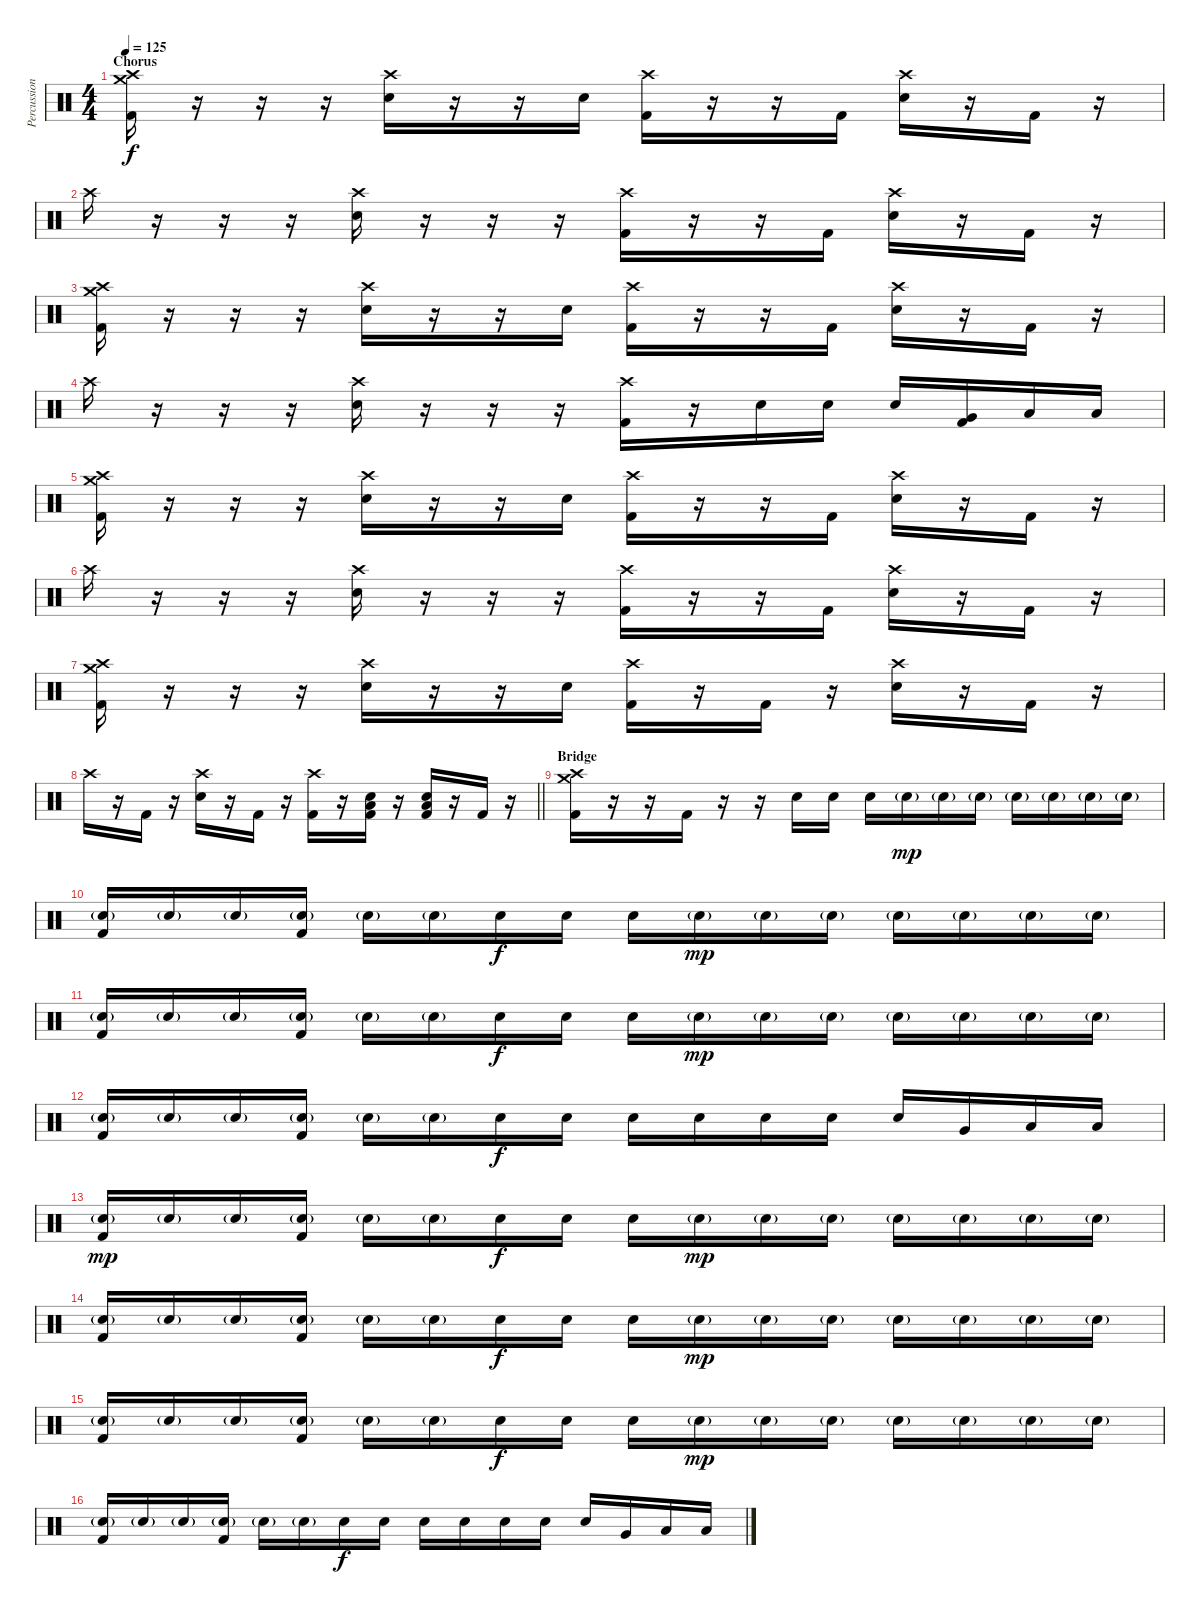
\track ("Percussion" "Percussion") {instrument percussion}
\staff {score}
\articulation defaults
\ts (4 4)
\section ("" "Chorus")
\tempo 125
\clef neutral
\ks c
("Crash medium (hit)" "Crash high (hit)" "Kick (hit) 2").16{dy f} r.16 r.16 r.16 ("Crash high (hit)" "Electric Snare (hit)").16 r.16 r.16 "Electric Snare (hit)".16 ("Crash high (hit)" "Kick (hit) 2").16 r.16 r.16 "Kick (hit) 2".16 ("Crash high (hit)" "Electric Snare (hit)").16 r.16 "Kick (hit) 2".16 r.16 |
"Crash high (hit)".16 r.16 r.16 r.16 ("Crash high (hit)" "Electric Snare (hit)").16 r.16 r.16 r.16 ("Crash high (hit)" "Kick (hit) 2").16 r.16 r.16 "Kick (hit) 2".16 ("Crash high (hit)" "Electric Snare (hit)").16 r.16 "Kick (hit) 2".16 r.16 |
("Crash medium (hit)" "Crash high (hit)" "Kick (hit) 2").16 r.16 r.16 r.16 ("Crash high (hit)" "Electric Snare (hit)").16 r.16 r.16 "Electric Snare (hit)".16 ("Crash high (hit)" "Kick (hit) 2").16 r.16 r.16 "Kick (hit) 2".16 ("Crash high (hit)" "Electric Snare (hit)").16 r.16 "Kick (hit) 2".16 r.16 |
"Crash high (hit)".16 r.16 r.16 r.16 ("Crash high (hit)" "Electric Snare (hit)").16 r.16 r.16 r.16 ("Crash high (hit)" "Kick (hit) 2").16 r.16 "Electric Snare (hit)".16 "Electric Snare (hit)".16 "Electric Snare (hit)".16 ("Very Low Tom (hit)" "Kick (hit) 2").16 "Low Floor Tom (hit)".16 "Low Floor Tom (hit)".16 |
("Crash medium (hit)" "Crash high (hit)" "Kick (hit) 2").16 r.16 r.16 r.16 ("Crash high (hit)" "Electric Snare (hit)").16 r.16 r.16 "Electric Snare (hit)".16 ("Crash high (hit)" "Kick (hit) 2").16 r.16 r.16 "Kick (hit) 2".16 ("Crash high (hit)" "Electric Snare (hit)").16 r.16 "Kick (hit) 2".16 r.16 |
"Crash high (hit)".16 r.16 r.16 r.16 ("Crash high (hit)" "Electric Snare (hit)").16 r.16 r.16 r.16 ("Crash high (hit)" "Kick (hit) 2").16 r.16 r.16 "Kick (hit) 2".16 ("Crash high (hit)" "Electric Snare (hit)").16 r.16 "Kick (hit) 2".16 r.16 |
("Crash medium (hit)" "Crash high (hit)" "Kick (hit) 2").16 r.16 r.16 r.16 ("Crash high (hit)" "Electric Snare (hit)").16 r.16 r.16 "Electric Snare (hit)".16 ("Crash high (hit)" "Kick (hit) 2").16 r.16 "Kick (hit) 2".16 r.16 ("Crash high (hit)" "Electric Snare (hit)").16 r.16 "Kick (hit) 2".16 r.16 |
\barLineRight lightlight "Crash high (hit)".16
r.16 "Kick (hit) 2".16 r.16 ("Crash high (hit)" "Electric Snare (hit)").16 r.16 "Kick (hit) 2".16 r.16 ("Crash high (hit)" "Kick (hit) 2").16 r.16 ("Electric Snare (hit)" "Low Floor Tom (hit)" "Kick (hit) 2").16 r.16 ("Electric Snare (hit)" "Low Floor Tom (hit)" "Kick (hit) 2").16 r.16 "Kick (hit) 2".16 r.16 |
\section ("" "Bridge")
("Crash medium (hit)" "Crash high (hit)" "Kick (hit) 2").16 r.16 r.16 "Kick (hit) 2".16 r.16 r.16 "Electric Snare (hit)".16 "Electric Snare (hit)".16 "Electric Snare (hit)".16 "Electric Snare (hit)"{g}.16{dy mp} "Electric Snare (hit)"{g}.16 "Electric Snare (hit)"{g}.16 "Electric Snare (hit)"{g}.16 "Electric Snare (hit)"{g}.16 "Electric Snare (hit)"{g}.16 "Electric Snare (hit)"{g}.16 |
("Electric Snare (hit)"{g} "Kick (hit) 2").16 "Electric Snare (hit)"{g}.16 "Electric Snare (hit)"{g}.16 ("Electric Snare (hit)"{g} "Kick (hit) 2").16 "Electric Snare (hit)"{g}.16 "Electric Snare (hit)"{g}.16 "Electric Snare (hit)".16{dy f} "Electric Snare (hit)".16 "Electric Snare (hit)".16 "Electric Snare (hit)"{g}.16{dy mp} "Electric Snare (hit)"{g}.16 "Electric Snare (hit)"{g}.16 "Electric Snare (hit)"{g}.16 "Electric Snare (hit)"{g}.16 "Electric Snare (hit)"{g}.16 "Electric Snare (hit)"{g}.16 |
("Electric Snare (hit)"{g} "Kick (hit) 2").16 "Electric Snare (hit)"{g}.16 "Electric Snare (hit)"{g}.16 ("Electric Snare (hit)"{g} "Kick (hit) 2").16 "Electric Snare (hit)"{g}.16 "Electric Snare (hit)"{g}.16 "Electric Snare (hit)".16{dy f} "Electric Snare (hit)".16 "Electric Snare (hit)".16 "Electric Snare (hit)"{g}.16{dy mp} "Electric Snare (hit)"{g}.16 "Electric Snare (hit)"{g}.16 "Electric Snare (hit)"{g}.16 "Electric Snare (hit)"{g}.16 "Electric Snare (hit)"{g}.16 "Electric Snare (hit)"{g}.16 |
("Electric Snare (hit)"{g} "Kick (hit) 2").16 "Electric Snare (hit)"{g}.16 "Electric Snare (hit)"{g}.16 ("Electric Snare (hit)"{g} "Kick (hit) 2").16 "Electric Snare (hit)"{g}.16 "Electric Snare (hit)"{g}.16 "Electric Snare (hit)".16{dy f} "Electric Snare (hit)".16 "Electric Snare (hit)".16 "Electric Snare (hit)".16 "Electric Snare (hit)".16 "Electric Snare (hit)".16 "Electric Snare (hit)".16 "Very Low Tom (hit)".16 "Low Floor Tom (hit)".16 "Low Floor Tom (hit)".16 |
("Electric Snare (hit)"{g} "Kick (hit) 2").16{dy mp} "Electric Snare (hit)"{g}.16 "Electric Snare (hit)"{g}.16 ("Electric Snare (hit)"{g} "Kick (hit) 2").16 "Electric Snare (hit)"{g}.16 "Electric Snare (hit)"{g}.16 "Electric Snare (hit)".16{dy f} "Electric Snare (hit)".16 "Electric Snare (hit)".16 "Electric Snare (hit)"{g}.16{dy mp} "Electric Snare (hit)"{g}.16 "Electric Snare (hit)"{g}.16 "Electric Snare (hit)"{g}.16 "Electric Snare (hit)"{g}.16 "Electric Snare (hit)"{g}.16 "Electric Snare (hit)"{g}.16 |
("Electric Snare (hit)"{g} "Kick (hit) 2").16 "Electric Snare (hit)"{g}.16 "Electric Snare (hit)"{g}.16 ("Electric Snare (hit)"{g} "Kick (hit) 2").16 "Electric Snare (hit)"{g}.16 "Electric Snare (hit)"{g}.16 "Electric Snare (hit)".16{dy f} "Electric Snare (hit)".16 "Electric Snare (hit)".16 "Electric Snare (hit)"{g}.16{dy mp} "Electric Snare (hit)"{g}.16 "Electric Snare (hit)"{g}.16 "Electric Snare (hit)"{g}.16 "Electric Snare (hit)"{g}.16 "Electric Snare (hit)"{g}.16 "Electric Snare (hit)"{g}.16 |
("Electric Snare (hit)"{g} "Kick (hit) 2").16 "Electric Snare (hit)"{g}.16 "Electric Snare (hit)"{g}.16 ("Electric Snare (hit)"{g} "Kick (hit) 2").16 "Electric Snare (hit)"{g}.16 "Electric Snare (hit)"{g}.16 "Electric Snare (hit)".16{dy f} "Electric Snare (hit)".16 "Electric Snare (hit)".16 "Electric Snare (hit)"{g}.16{dy mp} "Electric Snare (hit)"{g}.16 "Electric Snare (hit)"{g}.16 "Electric Snare (hit)"{g}.16 "Electric Snare (hit)"{g}.16 "Electric Snare (hit)"{g}.16 "Electric Snare (hit)"{g}.16 |
("Electric Snare (hit)"{g} "Kick (hit) 2").16 "Electric Snare (hit)"{g}.16 "Electric Snare (hit)"{g}.16 ("Electric Snare (hit)"{g} "Kick (hit) 2").16 "Electric Snare (hit)"{g}.16 "Electric Snare (hit)"{g}.16 "Electric Snare (hit)".16{dy f} "Electric Snare (hit)".16 "Electric Snare (hit)".16 "Electric Snare (hit)".16 "Electric Snare (hit)".16 "Electric Snare (hit)".16 "Electric Snare (hit)".16 "Very Low Tom (hit)".16 "Low Floor Tom (hit)".16 "Low Floor Tom (hit)".16
